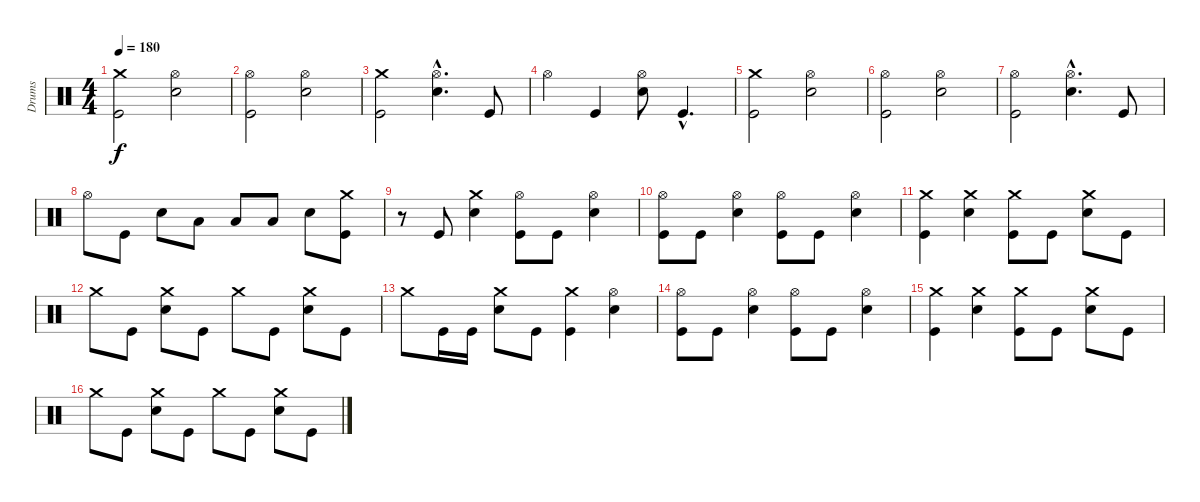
\track ("Drums" "Drums") {instrument percussion}
\staff {score}
\articulation defaults
\ts (4 4)
\tempo 180
\clef neutral
\ks c
("Crash medium (hit)" "Kick (hit)").2{dy f} ("Hi-Hat (open)" "Electric Snare (hit)").2 |
("Hi-Hat (open)" "Kick (hit)").2 ("Hi-Hat (open)" "Electric Snare (hit)").2 |
("Crash medium (hit)" "Kick (hit)").2 ("Hi-Hat (open)"{hac} "Electric Snare (hit)"{hac}).4{d} "Kick (hit)".8 |
"Hi-Hat (open)".4 "Kick (hit)".4 ("Hi-Hat (open)" "Electric Snare (hit)").8 "Kick (hit)"{hac}.4{d} |
("Crash medium (hit)" "Kick (hit)").2 ("Hi-Hat (open)" "Electric Snare (hit)").2 |
("Hi-Hat (open)" "Kick (hit)").2 ("Hi-Hat (open)" "Electric Snare (hit)").2 |
("Hi-Hat (open)" "Kick (hit)").2 ("Hi-Hat (open)"{hac} "Electric Snare (hit)"{hac}).4{d} "Kick (hit)".8 |
"Hi-Hat (open)".8 "Kick (hit)".8 "Electric Snare (hit)".8 "Low Tom (hit)".8 "Low Tom (hit)".8 "Low Tom (hit)".8 "Electric Snare (hit)".8 ("Crash medium (hit)" "Kick (hit)").8 |
r.8 "Kick (hit)".8 ("Crash medium (hit)" "Electric Snare (hit)").4 ("Hi-Hat (open)" "Kick (hit)").8 "Kick (hit)".8 ("Hi-Hat (open)" "Electric Snare (hit)").4 |
("Hi-Hat (open)" "Kick (hit)").8 "Kick (hit)".8 ("Hi-Hat (open)" "Electric Snare (hit)").4 ("Hi-Hat (open)" "Kick (hit)").8 "Kick (hit)".8 ("Hi-Hat (open)" "Electric Snare (hit)").4 |
("Crash medium (hit)" "Kick (hit)").4 ("Crash medium (hit)" "Electric Snare (hit)").4 ("Crash medium (hit)" "Kick (hit)").8 "Kick (hit)".8 ("Crash medium (hit)" "Electric Snare (hit)").8 "Kick (hit)".8 |
"Crash medium (hit)".8 "Kick (hit)".8 ("Crash medium (hit)" "Electric Snare (hit)").8 "Kick (hit)".8 "Crash medium (hit)".8 "Kick (hit)".8 ("Crash medium (hit)" "Electric Snare (hit)").8 "Kick (hit)".8 |
"Crash medium (hit)".8 "Kick (hit)".16 "Kick (hit)".16 ("Crash medium (hit)" "Electric Snare (hit)").8 "Kick (hit)".8 ("Crash medium (hit)" "Kick (hit)").4 ("Hi-Hat (open)" "Electric Snare (hit)").4 |
("Hi-Hat (open)" "Kick (hit)").8 "Kick (hit)".8 ("Hi-Hat (open)" "Electric Snare (hit)").4 ("Hi-Hat (open)" "Kick (hit)").8 "Kick (hit)".8 ("Hi-Hat (open)" "Electric Snare (hit)").4 |
("Crash medium (hit)" "Kick (hit)").4 ("Crash medium (hit)" "Electric Snare (hit)").4 ("Crash medium (hit)" "Kick (hit)").8 "Kick (hit)".8 ("Crash medium (hit)" "Electric Snare (hit)").8 "Kick (hit)".8 |
"Crash medium (hit)".8 "Kick (hit)".8 ("Crash medium (hit)" "Electric Snare (hit)").8 "Kick (hit)".8 "Crash medium (hit)".8 "Kick (hit)".8 ("Crash medium (hit)" "Electric Snare (hit)").8 "Kick (hit)".8
